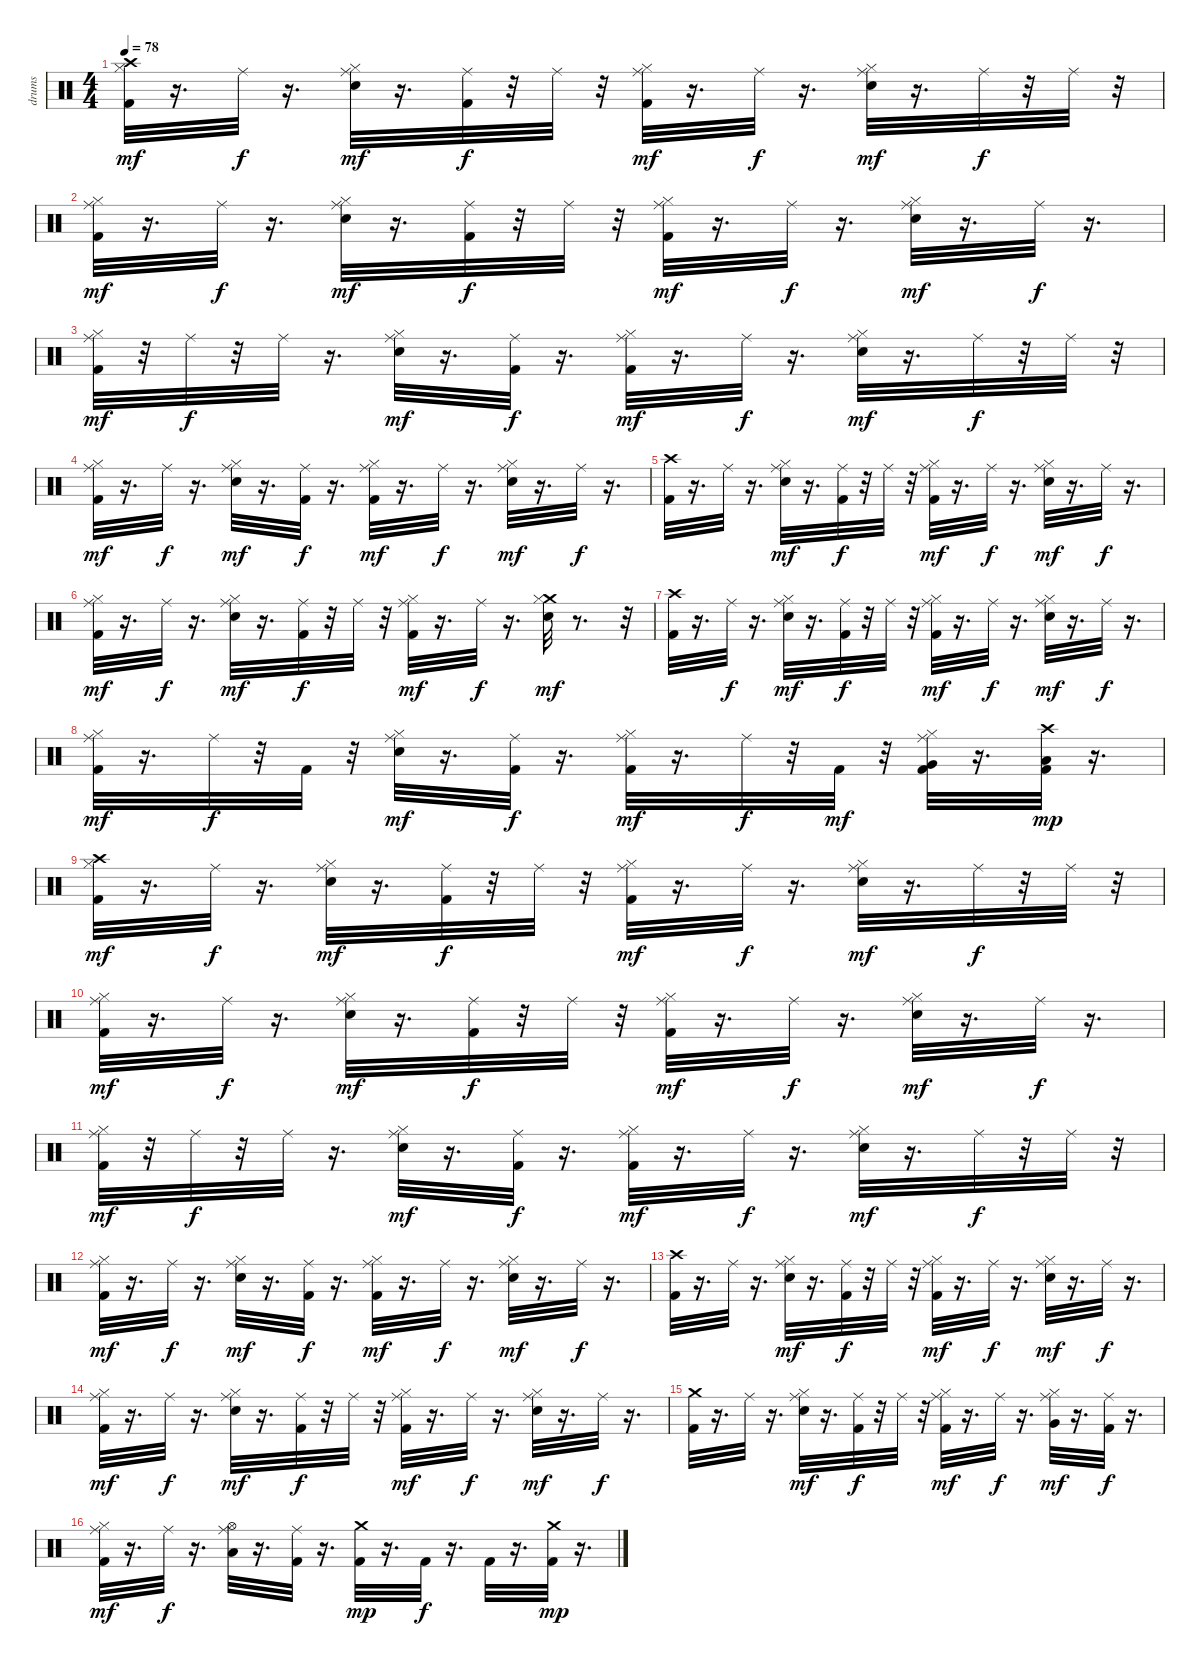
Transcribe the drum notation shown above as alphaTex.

\track ("drums" "drums") {instrument percussion}
\staff {score}
\articulation defaults
\ts (4 4)
\tempo 78
\clef neutral
\ks c
("Hi-Hat (closed)" "Kick (hit) 2" "Crash high (hit)").32{dy mf} r.16{d} "Ride (middle)".32{dy f} r.16{d} ("Hi-Hat (closed)" "Ride (middle)" "Electric Snare (hit)").32{dy mf} r.16{d} ("Ride (middle)" "Kick (hit) 2").32{dy f} r.32 "Ride (middle)".32 r.32 ("Hi-Hat (closed)" "Ride (middle)" "Kick (hit) 2").32{dy mf} r.16{d} "Ride (middle)".32{dy f} r.16{d} ("Hi-Hat (closed)" "Ride (middle)" "Electric Snare (hit)").32{dy mf} r.16{d} "Ride (middle)".32{dy f} r.32 "Ride (middle)".32 r.32 |
("Hi-Hat (closed)" "Ride (middle)" "Kick (hit) 2").32{dy mf} r.16{d} "Ride (middle)".32{dy f} r.16{d} ("Hi-Hat (closed)" "Ride (middle)" "Electric Snare (hit)").32{dy mf} r.16{d} ("Ride (middle)" "Kick (hit) 2").32{dy f} r.32 "Ride (middle)".32 r.32 ("Hi-Hat (closed)" "Ride (middle)" "Kick (hit) 2").32{dy mf} r.16{d} "Ride (middle)".32{dy f} r.16{d} ("Hi-Hat (closed)" "Ride (middle)" "Electric Snare (hit)").32{dy mf} r.16{d} "Ride (middle)".32{dy f} r.16{d} |
("Ride (middle)" "Hi-Hat (closed)" "Kick (hit) 2").32{dy mf} r.32 "Ride (middle)".32{dy f} r.32 "Ride (middle)".32 r.16{d} ("Ride (middle)" "Hi-Hat (closed)" "Electric Snare (hit)").32{dy mf} r.16{d} ("Ride (middle)" "Kick (hit) 2").32{dy f} r.16{d} ("Ride (middle)" "Hi-Hat (closed)" "Kick (hit) 2").32{dy mf} r.16{d} "Ride (middle)".32{dy f} r.16{d} ("Ride (middle)" "Hi-Hat (closed)" "Electric Snare (hit)").32{dy mf} r.16{d} "Ride (middle)".32{dy f} r.32 "Ride (middle)".32 r.32 |
("Ride (middle)" "Hi-Hat (closed)" "Kick (hit) 2").32{dy mf} r.16{d} "Ride (middle)".32{dy f} r.16{d} ("Ride (middle)" "Hi-Hat (closed)" "Electric Snare (hit)").32{dy mf} r.16{d} ("Ride (middle)" "Kick (hit) 2").32{dy f} r.16{d} ("Ride (middle)" "Hi-Hat (closed)" "Kick (hit) 2").32{dy mf} r.16{d} "Ride (middle)".32{dy f} r.16{d} ("Ride (middle)" "Hi-Hat (closed)" "Electric Snare (hit)").32{dy mf} r.16{d} "Ride (middle)".32{dy f} r.16{d} |
("Crash high (hit)" "Kick (hit) 2").32 r.16{d} "Ride (middle)".32 r.16{d} ("Ride (middle)" "Hi-Hat (closed)" "Electric Snare (hit)").32{dy mf} r.16{d} ("Ride (middle)" "Kick (hit) 2").32{dy f} r.32 "Ride (middle)".32 r.32 ("Ride (middle)" "Hi-Hat (closed)" "Kick (hit) 2").32{dy mf} r.16{d} "Ride (middle)".32{dy f} r.16{d} ("Ride (middle)" "Hi-Hat (closed)" "Electric Snare (hit)").32{dy mf} r.16{d} "Ride (middle)".32{dy f} r.16{d} |
("Ride (middle)" "Hi-Hat (closed)" "Kick (hit) 2").32{dy mf} r.16{d} "Ride (middle)".32{dy f} r.16{d} ("Ride (middle)" "Hi-Hat (closed)" "Electric Snare (hit)").32{dy mf} r.16{d} ("Ride (middle)" "Kick (hit) 2").32{dy f} r.32 "Ride (middle)".32 r.32 ("Ride (middle)" "Hi-Hat (closed)" "Kick (hit) 2").32{dy mf} r.16{d} "Ride (middle)".32{dy f} r.16{d} ("Crash medium (hit)" "Hi-Hat (closed)" "Electric Snare (hit)").32{dy mf} r.8{d} r.32 |
("Crash high (hit)" "Kick (hit) 2").32 r.16{d} "Ride (middle)".32{dy f} r.16{d} ("Ride (middle)" "Hi-Hat (closed)" "Electric Snare (hit)").32{dy mf} r.16{d} ("Ride (middle)" "Kick (hit) 2").32{dy f} r.32 "Ride (middle)".32 r.32 ("Hi-Hat (closed)" "Ride (middle)" "Kick (hit) 2").32{dy mf} r.16{d} "Ride (middle)".32{dy f} r.16{d} ("Ride (middle)" "Electric Snare (hit)" "Hi-Hat (closed)").32{dy mf} r.16{d} "Ride (middle)".32{dy f} r.16{d} |
("Ride (middle)" "Hi-Hat (closed)" "Kick (hit) 2").32{dy mf} r.16{d} "Ride (middle)".32{dy f} r.32 "Kick (hit) 2".32 r.32 ("Ride (middle)" "Hi-Hat (closed)" "Electric Snare (hit)").32{dy mf} r.16{d} ("Ride (middle)" "Kick (hit) 2").32{dy f} r.16{d} ("Ride (middle)" "Hi-Hat (closed)" "Kick (hit) 2").32{dy mf} r.16{d} "Ride (middle)".32{dy f} r.32 "Kick (hit) 2".32{dy mf} r.32 ("Ride (middle)" "Very Low Tom (hit)" "Kick (hit) 2" "Hi-Hat (closed)").32 r.16{d} ("Crash high (hit)" "Low Floor Tom (hit)" "Kick (hit) 2").32{dy mp} r.16{d} |
("Hi-Hat (closed)" "Kick (hit) 2" "Crash high (hit)").32{dy mf} r.16{d} "Ride (middle)".32{dy f} r.16{d} ("Hi-Hat (closed)" "Ride (middle)" "Electric Snare (hit)").32{dy mf} r.16{d} ("Ride (middle)" "Kick (hit) 2").32{dy f} r.32 "Ride (middle)".32 r.32 ("Hi-Hat (closed)" "Ride (middle)" "Kick (hit) 2").32{dy mf} r.16{d} "Ride (middle)".32{dy f} r.16{d} ("Hi-Hat (closed)" "Ride (middle)" "Electric Snare (hit)").32{dy mf} r.16{d} "Ride (middle)".32{dy f} r.32 "Ride (middle)".32 r.32 |
("Hi-Hat (closed)" "Ride (middle)" "Kick (hit) 2").32{dy mf} r.16{d} "Ride (middle)".32{dy f} r.16{d} ("Hi-Hat (closed)" "Ride (middle)" "Electric Snare (hit)").32{dy mf} r.16{d} ("Ride (middle)" "Kick (hit) 2").32{dy f} r.32 "Ride (middle)".32 r.32 ("Hi-Hat (closed)" "Ride (middle)" "Kick (hit) 2").32{dy mf} r.16{d} "Ride (middle)".32{dy f} r.16{d} ("Hi-Hat (closed)" "Ride (middle)" "Electric Snare (hit)").32{dy mf} r.16{d} "Ride (middle)".32{dy f} r.16{d} |
("Ride (middle)" "Hi-Hat (closed)" "Kick (hit) 2").32{dy mf} r.32 "Ride (middle)".32{dy f} r.32 "Ride (middle)".32 r.16{d} ("Ride (middle)" "Hi-Hat (closed)" "Electric Snare (hit)").32{dy mf} r.16{d} ("Ride (middle)" "Kick (hit) 2").32{dy f} r.16{d} ("Ride (middle)" "Hi-Hat (closed)" "Kick (hit) 2").32{dy mf} r.16{d} "Ride (middle)".32{dy f} r.16{d} ("Ride (middle)" "Hi-Hat (closed)" "Electric Snare (hit)").32{dy mf} r.16{d} "Ride (middle)".32{dy f} r.32 "Ride (middle)".32 r.32 |
("Ride (middle)" "Hi-Hat (closed)" "Kick (hit) 2").32{dy mf} r.16{d} "Ride (middle)".32{dy f} r.16{d} ("Ride (middle)" "Hi-Hat (closed)" "Electric Snare (hit)").32{dy mf} r.16{d} ("Ride (middle)" "Kick (hit) 2").32{dy f} r.16{d} ("Ride (middle)" "Hi-Hat (closed)" "Kick (hit) 2").32{dy mf} r.16{d} "Ride (middle)".32{dy f} r.16{d} ("Ride (middle)" "Hi-Hat (closed)" "Electric Snare (hit)").32{dy mf} r.16{d} "Ride (middle)".32{dy f} r.16{d} |
("Crash high (hit)" "Kick (hit) 2").32 r.16{d} "Ride (middle)".32 r.16{d} ("Ride (middle)" "Hi-Hat (closed)" "Electric Snare (hit)").32{dy mf} r.16{d} ("Ride (middle)" "Kick (hit) 2").32{dy f} r.32 "Ride (middle)".32 r.32 ("Ride (middle)" "Hi-Hat (closed)" "Kick (hit) 2").32{dy mf} r.16{d} "Ride (middle)".32{dy f} r.16{d} ("Ride (middle)" "Hi-Hat (closed)" "Electric Snare (hit)").32{dy mf} r.16{d} "Ride (middle)".32{dy f} r.16{d} |
("Ride (middle)" "Hi-Hat (closed)" "Kick (hit) 2").32{dy mf} r.16{d} "Ride (middle)".32{dy f} r.16{d} ("Ride (middle)" "Hi-Hat (closed)" "Electric Snare (hit)").32{dy mf} r.16{d} ("Ride (middle)" "Kick (hit) 2").32{dy f} r.32 "Ride (middle)".32 r.32 ("Ride (middle)" "Hi-Hat (closed)" "Kick (hit) 2").32{dy mf} r.16{d} "Ride (middle)".32{dy f} r.16{d} ("Ride (middle)" "Hi-Hat (closed)" "Electric Snare (hit)").32{dy mf} r.16{d} "Ride (middle)".32{dy f} r.16{d} |
("Crash medium (hit)" "Kick (hit) 2").32 r.16{d} "Ride (middle)".32 r.16{d} ("Ride (middle)" "Hi-Hat (closed)" "Electric Snare (hit)").32{dy mf} r.16{d} ("Ride (middle)" "Kick (hit) 2").32{dy f} r.32 "Ride (middle)".32 r.32 ("Hi-Hat (closed)" "Ride (middle)" "Kick (hit) 2").32{dy mf} r.16{d} "Ride (middle)".32{dy f} r.16{d} ("Ride (middle)" "Very Low Tom (hit)" "Hi-Hat (closed)").32{dy mf} r.16{d} ("Kick (hit) 2" "Ride (middle)").32{dy f} r.16{d} |
("Hi-Hat (closed)" "Ride (middle)" "Kick (hit) 2").32{dy mf} r.16{d} "Ride (middle)".32{dy f} r.16{d} ("Ride (middle)" "Low Floor Tom (hit)" "Hi-Hat (open)").32 r.16{d} ("Ride (middle)" "Kick (hit) 2").32 r.16{d} ("Crash medium (hit)" "Kick (hit) 2").32{dy mp} r.16{d} "Kick (hit) 2".32{dy f} r.16{d} "Kick (hit) 2".32 r.16{d} ("Crash medium (hit)" "Kick (hit) 2").32{dy mp} r.16{d}
